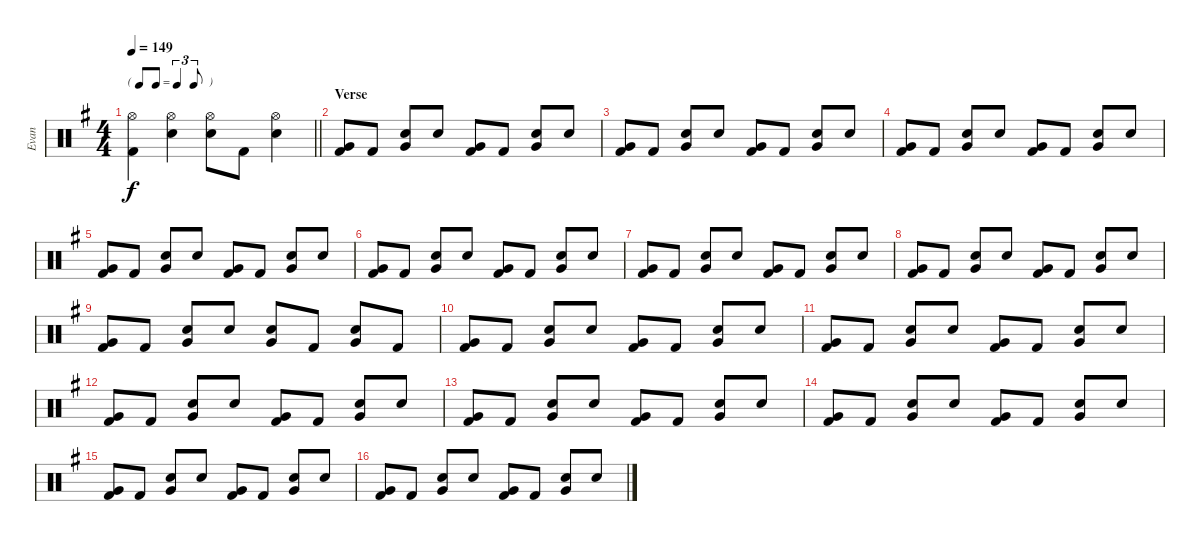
\track ("Evan" "Evan") {instrument percussion}
\staff {score}
\articulation defaults
\ts (4 4)
\tf triplet8th
\tempo 149
\clef neutral
\barLineRight lightlight
\ks g
("Hi-Hat (open)" "Kick (hit) 2").4{dy f} ("Hi-Hat (open)" "Electric Snare (hit)").4 ("Hi-Hat (open)" "Electric Snare (hit)").8 "Kick (hit) 2".8 ("Hi-Hat (open)" "Electric Snare (hit)").4 |
\section ("" "Verse")
("Very Low Tom (hit)" "Kick (hit) 2").8 "Kick (hit) 2".8 ("Electric Snare (hit)" "Very Low Tom (hit)").8 "Electric Snare (hit)".8 ("Very Low Tom (hit)" "Kick (hit) 2").8 "Kick (hit) 2".8 ("Electric Snare (hit)" "Very Low Tom (hit)").8 "Electric Snare (hit)".8 |
("Very Low Tom (hit)" "Kick (hit) 2").8 "Kick (hit) 2".8 ("Electric Snare (hit)" "Very Low Tom (hit)").8 "Electric Snare (hit)".8 ("Very Low Tom (hit)" "Kick (hit) 2").8 "Kick (hit) 2".8 ("Electric Snare (hit)" "Very Low Tom (hit)").8 "Electric Snare (hit)".8 |
("Very Low Tom (hit)" "Kick (hit) 2").8 "Kick (hit) 2".8 ("Electric Snare (hit)" "Very Low Tom (hit)").8 "Electric Snare (hit)".8 ("Very Low Tom (hit)" "Kick (hit) 2").8 "Kick (hit) 2".8 ("Electric Snare (hit)" "Very Low Tom (hit)").8 "Electric Snare (hit)".8 |
("Very Low Tom (hit)" "Kick (hit) 2").8 "Kick (hit) 2".8 ("Electric Snare (hit)" "Very Low Tom (hit)").8 "Electric Snare (hit)".8 ("Very Low Tom (hit)" "Kick (hit) 2").8 "Kick (hit) 2".8 ("Electric Snare (hit)" "Very Low Tom (hit)").8 "Electric Snare (hit)".8 |
("Very Low Tom (hit)" "Kick (hit) 2").8 "Kick (hit) 2".8 ("Electric Snare (hit)" "Very Low Tom (hit)").8 "Electric Snare (hit)".8 ("Very Low Tom (hit)" "Kick (hit) 2").8 "Kick (hit) 2".8 ("Electric Snare (hit)" "Very Low Tom (hit)").8 "Electric Snare (hit)".8 |
("Very Low Tom (hit)" "Kick (hit) 2").8 "Kick (hit) 2".8 ("Electric Snare (hit)" "Very Low Tom (hit)").8 "Electric Snare (hit)".8 ("Very Low Tom (hit)" "Kick (hit) 2").8 "Kick (hit) 2".8 ("Electric Snare (hit)" "Very Low Tom (hit)").8 "Electric Snare (hit)".8 |
("Very Low Tom (hit)" "Kick (hit) 2").8 "Kick (hit) 2".8 ("Electric Snare (hit)" "Very Low Tom (hit)").8 "Electric Snare (hit)".8 ("Very Low Tom (hit)" "Kick (hit) 2").8 "Kick (hit) 2".8 ("Electric Snare (hit)" "Very Low Tom (hit)").8 "Electric Snare (hit)".8 |
("Very Low Tom (hit)" "Kick (hit) 2").8 "Kick (hit) 2".8 ("Electric Snare (hit)" "Very Low Tom (hit)").8 "Electric Snare (hit)".8 ("Electric Snare (hit)" "Very Low Tom (hit)").8 "Kick (hit) 2".8 ("Electric Snare (hit)" "Very Low Tom (hit)").8 "Kick (hit) 2".8 |
("Very Low Tom (hit)" "Kick (hit) 2").8 "Kick (hit) 2".8 ("Electric Snare (hit)" "Very Low Tom (hit)").8 "Electric Snare (hit)".8 ("Very Low Tom (hit)" "Kick (hit) 2").8 "Kick (hit) 2".8 ("Electric Snare (hit)" "Very Low Tom (hit)").8 "Electric Snare (hit)".8 |
("Very Low Tom (hit)" "Kick (hit) 2").8 "Kick (hit) 2".8 ("Electric Snare (hit)" "Very Low Tom (hit)").8 "Electric Snare (hit)".8 ("Very Low Tom (hit)" "Kick (hit) 2").8 "Kick (hit) 2".8 ("Electric Snare (hit)" "Very Low Tom (hit)").8 "Electric Snare (hit)".8 |
("Very Low Tom (hit)" "Kick (hit) 2").8 "Kick (hit) 2".8 ("Electric Snare (hit)" "Very Low Tom (hit)").8 "Electric Snare (hit)".8 ("Very Low Tom (hit)" "Kick (hit) 2").8 "Kick (hit) 2".8 ("Electric Snare (hit)" "Very Low Tom (hit)").8 "Electric Snare (hit)".8 |
("Very Low Tom (hit)" "Kick (hit) 2").8 "Kick (hit) 2".8 ("Electric Snare (hit)" "Very Low Tom (hit)").8 "Electric Snare (hit)".8 ("Very Low Tom (hit)" "Kick (hit) 2").8 "Kick (hit) 2".8 ("Electric Snare (hit)" "Very Low Tom (hit)").8 "Electric Snare (hit)".8 |
("Very Low Tom (hit)" "Kick (hit) 2").8 "Kick (hit) 2".8 ("Electric Snare (hit)" "Very Low Tom (hit)").8 "Electric Snare (hit)".8 ("Very Low Tom (hit)" "Kick (hit) 2").8 "Kick (hit) 2".8 ("Electric Snare (hit)" "Very Low Tom (hit)").8 "Electric Snare (hit)".8 |
("Very Low Tom (hit)" "Kick (hit) 2").8 "Kick (hit) 2".8 ("Electric Snare (hit)" "Very Low Tom (hit)").8 "Electric Snare (hit)".8 ("Very Low Tom (hit)" "Kick (hit) 2").8 "Kick (hit) 2".8 ("Electric Snare (hit)" "Very Low Tom (hit)").8 "Electric Snare (hit)".8 |
("Very Low Tom (hit)" "Kick (hit) 2").8 "Kick (hit) 2".8 ("Electric Snare (hit)" "Very Low Tom (hit)").8 "Electric Snare (hit)".8 ("Very Low Tom (hit)" "Kick (hit) 2").8 "Kick (hit) 2".8 ("Electric Snare (hit)" "Very Low Tom (hit)").8 "Electric Snare (hit)".8
